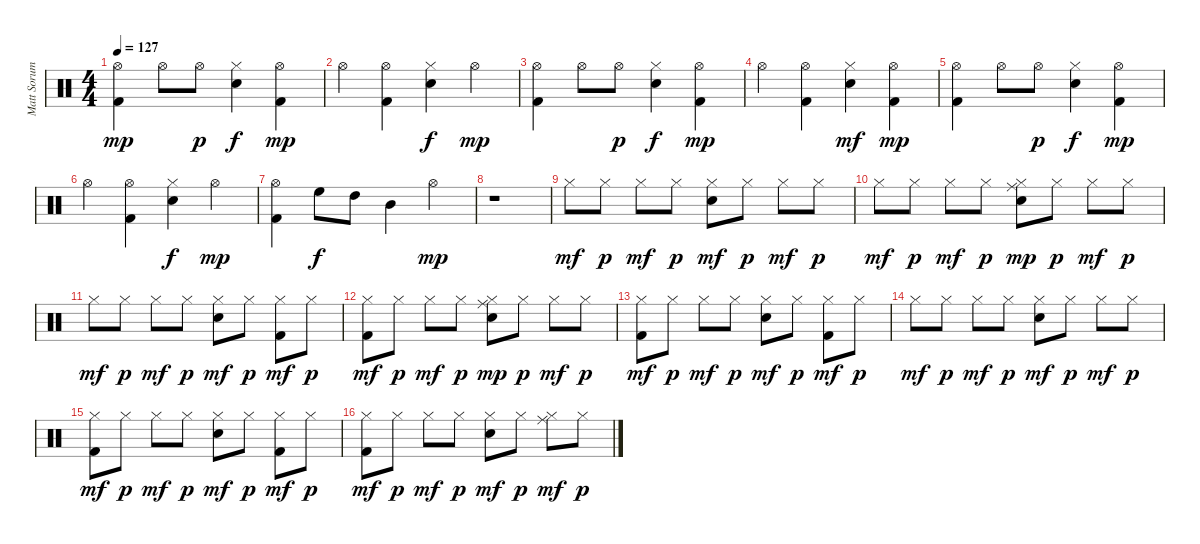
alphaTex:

\track ("Matt Sorum" "Matt Sorum") {instrument percussion}
\staff {score}
\articulation defaults
\ts (4 4)
\tempo 127
\clef neutral
\ks c
("Kick (hit) 2" "Hi-Hat (open)").4{dy mp} "Hi-Hat (open)".8 "Hi-Hat (open)".8{dy p} ("Snare (hit) 2" "Hi-Hat (closed)").4{dy f} ("Kick (hit) 2" "Hi-Hat (open)").4{dy mp} |
"Hi-Hat (open)".4 ("Kick (hit) 2" "Hi-Hat (open)").4 ("Snare (hit) 2" "Hi-Hat (closed)").4{dy f} "Hi-Hat (open)".4{dy mp} |
("Kick (hit) 2" "Hi-Hat (open)").4 "Hi-Hat (open)".8 "Hi-Hat (open)".8{dy p} ("Snare (hit) 2" "Hi-Hat (closed)").4{dy f} ("Kick (hit) 2" "Hi-Hat (open)").4{dy mp} |
"Hi-Hat (open)".4 ("Kick (hit) 2" "Hi-Hat (open)").4 ("Snare (hit) 2" "Hi-Hat (closed)").4{dy mf} ("Kick (hit) 2" "Hi-Hat (open)").4{dy mp} |
("Kick (hit) 2" "Hi-Hat (open)").4 "Hi-Hat (open)".8 "Hi-Hat (open)".8{dy p} ("Snare (hit) 2" "Hi-Hat (closed)").4{dy f} ("Kick (hit) 2" "Hi-Hat (open)").4{dy mp} |
"Hi-Hat (open)".4 ("Kick (hit) 2" "Hi-Hat (open)").4 ("Snare (hit) 2" "Hi-Hat (closed)").4{dy f} "Hi-Hat (open)".4{dy mp} |
("Kick (hit) 2" "Hi-Hat (open)").4 "High Floor Tom (hit)".8{dy f} "High Tom (hit)".8 "Mid Tom (hit)".4 "Hi-Hat (open)".4{dy mp} |
r.1 |
"Hi-Hat (closed)".8{dy mf volume 11} "Hi-Hat (closed)".8{dy p} "Hi-Hat (closed)".8{dy mf} "Hi-Hat (closed)".8{dy p} ("Snare (hit) 2" "Hi-Hat (closed)").8{dy mf} "Hi-Hat (closed)".8{dy p} "Hi-Hat (closed)".8{dy mf} "Hi-Hat (closed)".8{dy p} |
"Hi-Hat (closed)".8{dy mf} "Hi-Hat (closed)".8{dy p} "Hi-Hat (closed)".8{dy mf} "Hi-Hat (closed)".8{dy p} ("Snare (hit) 2" "Hi-Hat (closed)" "Ride (middle)").8{dy mp} "Hi-Hat (closed)".8{dy p} "Hi-Hat (closed)".8{dy mf} "Hi-Hat (closed)".8{dy p} |
"Hi-Hat (closed)".8{dy mf} "Hi-Hat (closed)".8{dy p} "Hi-Hat (closed)".8{dy mf} "Hi-Hat (closed)".8{dy p} ("Snare (hit) 2" "Hi-Hat (closed)").8{dy mf} "Hi-Hat (closed)".8{dy p} ("Kick (hit) 2" "Hi-Hat (closed)").8{dy mf} "Hi-Hat (closed)".8{dy p} |
("Kick (hit) 2" "Hi-Hat (closed)").8{dy mf} "Hi-Hat (closed)".8{dy p} "Hi-Hat (closed)".8{dy mf} "Hi-Hat (closed)".8{dy p} ("Snare (hit) 2" "Hi-Hat (closed)" "Ride (middle)").8{dy mp} "Hi-Hat (closed)".8{dy p} "Hi-Hat (closed)".8{dy mf} "Hi-Hat (closed)".8{dy p} |
("Kick (hit) 2" "Hi-Hat (closed)").8{dy mf} "Hi-Hat (closed)".8{dy p} "Hi-Hat (closed)".8{dy mf} "Hi-Hat (closed)".8{dy p} ("Snare (hit) 2" "Hi-Hat (closed)").8{dy mf} "Hi-Hat (closed)".8{dy p} ("Kick (hit) 2" "Hi-Hat (closed)").8{dy mf} "Hi-Hat (closed)".8{dy p} |
"Hi-Hat (closed)".8{dy mf} "Hi-Hat (closed)".8{dy p} "Hi-Hat (closed)".8{dy mf} "Hi-Hat (closed)".8{dy p} ("Snare (hit) 2" "Hi-Hat (closed)").8{dy mf} "Hi-Hat (closed)".8{dy p} "Hi-Hat (closed)".8{dy mf} "Hi-Hat (closed)".8{dy p} |
("Kick (hit) 2" "Hi-Hat (closed)").8{dy mf} "Hi-Hat (closed)".8{dy p} "Hi-Hat (closed)".8{dy mf} "Hi-Hat (closed)".8{dy p} ("Snare (hit) 2" "Hi-Hat (closed)").8{dy mf} "Hi-Hat (closed)".8{dy p} ("Kick (hit) 2" "Hi-Hat (closed)").8{dy mf} "Hi-Hat (closed)".8{dy p} |
("Kick (hit) 2" "Hi-Hat (closed)").8{dy mf} "Hi-Hat (closed)".8{dy p} "Hi-Hat (closed)".8{dy mf} "Hi-Hat (closed)".8{dy p} ("Snare (hit) 2" "Hi-Hat (closed)").8{dy mf} "Hi-Hat (closed)".8{dy p} ("Hi-Hat (closed)" "Ride (middle)").8{dy mf} "Hi-Hat (closed)".8{dy p}
